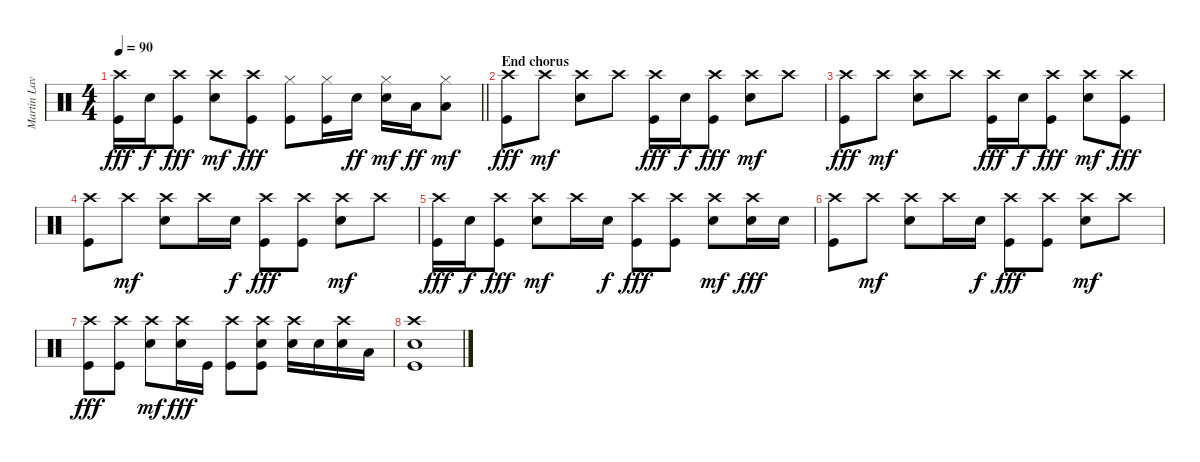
\track ("Martin Lavalle" "Martin Lav") {instrument percussion}
\staff {score}
\articulation defaults
\ts (4 4)
\tempo 90
\clef neutral
\barLineRight lightlight
\ks c
("Crash high (hit)" "Kick (hit)").16{dy fff} "Snare (hit) 2".16{dy f} ("Crash high (hit)" "Kick (hit)").8{dy fff} ("Crash high (hit)" "Snare (hit) 2").8{dy mf} ("Crash high (hit)" "Kick (hit)").8{dy fff} ("Hi-Hat (closed)" "Kick (hit)").8 ("Hi-Hat (closed)" "Kick (hit)").16 "Snare (hit) 2".16{dy ff} ("Hi-Hat (closed)" "Snare (hit) 2").16{dy mf} "Low Tom (hit)".16{dy ff} ("Hi-Hat (closed)" "Low Tom (hit)").8{dy mf} |
\section ("" "End chorus")
("Crash high (hit)" "Kick (hit)").8{dy fff} "Crash high (hit)".8{dy mf} ("Crash high (hit)" "Snare (hit) 2").8 "Crash high (hit)".8 ("Crash high (hit)" "Kick (hit)").16{dy fff} "Snare (hit) 2".16{dy f} ("Crash high (hit)" "Kick (hit)").8{dy fff} ("Crash high (hit)" "Snare (hit) 2").8{dy mf} "Crash high (hit)".8 |
("Crash high (hit)" "Kick (hit)").8{dy fff} "Crash high (hit)".8{dy mf} ("Crash high (hit)" "Snare (hit) 2").8 "Crash high (hit)".8 ("Crash high (hit)" "Kick (hit)").16{dy fff} "Snare (hit) 2".16{dy f} ("Crash high (hit)" "Kick (hit)").8{dy fff} ("Crash high (hit)" "Snare (hit) 2").8{dy mf} ("Crash high (hit)" "Kick (hit)").8{dy fff} |
("Crash high (hit)" "Kick (hit)").8 "Crash high (hit)".8{dy mf} ("Crash high (hit)" "Snare (hit) 2").8 "Crash high (hit)".16 "Snare (hit) 2".16{dy f} ("Crash high (hit)" "Kick (hit)").8{dy fff} ("Crash high (hit)" "Kick (hit)").8 ("Crash high (hit)" "Snare (hit) 2").8{dy mf} "Crash high (hit)".8 |
("Crash high (hit)" "Kick (hit)").16{dy fff} "Snare (hit) 2".16{dy f} ("Crash high (hit)" "Kick (hit)").8{dy fff} ("Crash high (hit)" "Snare (hit) 2").8{dy mf} "Crash high (hit)".16 "Snare (hit) 2".16{dy f} ("Crash high (hit)" "Kick (hit)").8{dy fff} ("Crash high (hit)" "Kick (hit)").8 ("Crash high (hit)" "Snare (hit) 2").8{dy mf} ("Crash high (hit)" "Snare (hit) 2").16{dy fff} "Snare (hit) 2".16 |
("Crash high (hit)" "Kick (hit)").8 "Crash high (hit)".8{dy mf} ("Crash high (hit)" "Snare (hit) 2").8 "Crash high (hit)".16 "Snare (hit) 2".16{dy f} ("Crash high (hit)" "Kick (hit)").8{dy fff} ("Crash high (hit)" "Kick (hit)").8 ("Crash high (hit)" "Snare (hit) 2").8{dy mf} "Crash high (hit)".8 |
("Crash high (hit)" "Kick (hit)").8{dy fff} ("Crash high (hit)" "Kick (hit)").8 ("Crash high (hit)" "Snare (hit) 2").8{dy mf} ("Crash high (hit)" "Snare (hit) 2").16{dy fff} "Kick (hit)".16 ("Crash high (hit)" "Kick (hit)").8 ("Crash high (hit)" "Snare (hit) 2" "Kick (hit)").8 ("Crash high (hit)" "Snare (hit) 2").16 "Snare (hit) 2".16 ("Crash high (hit)" "Snare (hit) 2").16 "Low Tom (hit)".16 |
("Crash high (hit)" "Snare (hit) 2" "Kick (hit)").1
